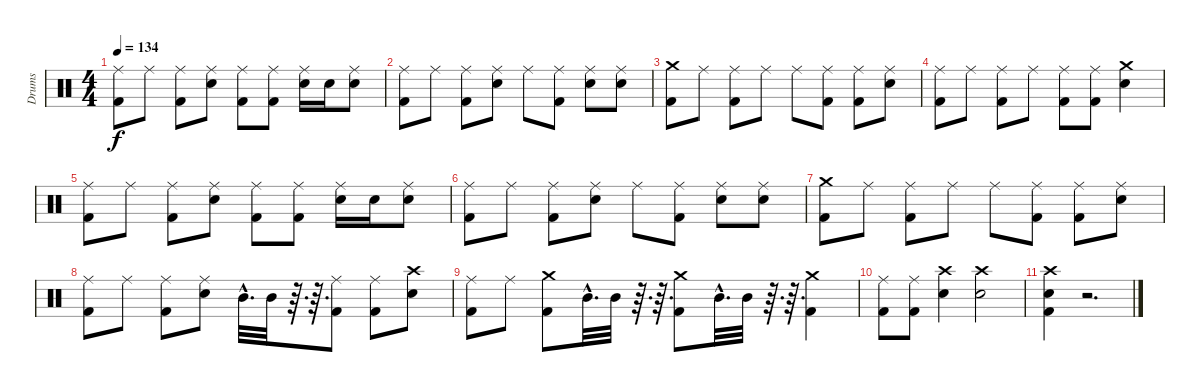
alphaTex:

\track ("Drums" "Drums") {instrument percussion}
\staff {score}
\articulation defaults
\ts (4 4)
\tempo 134
\clef neutral
\ks c
("Ride (middle)" "Kick (hit) 2").8{dy f} "Ride (middle)".8 ("Ride (middle)" "Kick (hit) 2").8 ("Ride (middle)" "Snare (hit) 2").8 ("Ride (middle)" "Kick (hit) 2").8 ("Ride (middle)" "Kick (hit) 2").8 ("Ride (middle)" "Snare (hit) 2").16 "Snare (hit) 2".16 ("Ride (middle)" "Snare (hit) 2").8 |
("Ride (middle)" "Kick (hit) 2").8 "Ride (middle)".8 ("Ride (middle)" "Kick (hit) 2").8 ("Ride (middle)" "Snare (hit) 2").8 "Ride (middle)".8 ("Ride (middle)" "Kick (hit) 2").8 ("Ride (middle)" "Snare (hit) 2").8 ("Ride (middle)" "Snare (hit) 2").8 |
("Crash medium (hit)" "Kick (hit) 2").8 "Ride (middle)".8 ("Ride (middle)" "Kick (hit) 2").8 "Ride (middle)".8 "Ride (middle)".8 ("Ride (middle)" "Kick (hit) 2").8 ("Ride (middle)" "Kick (hit) 2").8 ("Ride (middle)" "Snare (hit) 2").8 |
("Ride (middle)" "Kick (hit) 2").8 "Ride (middle)".8 ("Ride (middle)" "Kick (hit) 2").8 "Ride (middle)".8 ("Ride (middle)" "Kick (hit) 2").8 ("Ride (middle)" "Kick (hit) 2").8 ("Crash medium (hit)" "Snare (hit) 2").4 |
("Ride (middle)" "Kick (hit) 2").8 "Ride (middle)".8 ("Ride (middle)" "Kick (hit) 2").8 ("Ride (middle)" "Snare (hit) 2").8 ("Ride (middle)" "Kick (hit) 2").8 ("Ride (middle)" "Kick (hit) 2").8 ("Ride (middle)" "Snare (hit) 2").16 "Snare (hit) 2".16 ("Ride (middle)" "Snare (hit) 2").8 |
("Ride (middle)" "Kick (hit) 2").8 "Ride (middle)".8 ("Ride (middle)" "Kick (hit) 2").8 ("Ride (middle)" "Snare (hit) 2").8 "Ride (middle)".8 ("Ride (middle)" "Kick (hit) 2").8 ("Ride (middle)" "Snare (hit) 2").8 ("Ride (middle)" "Snare (hit) 2").8 |
("Crash medium (hit)" "Kick (hit) 2").8 "Ride (middle)".8 ("Ride (middle)" "Kick (hit) 2").8 "Ride (middle)".8 "Ride (middle)".8 ("Ride (middle)" "Kick (hit) 2").8 ("Ride (middle)" "Kick (hit) 2").8 ("Ride (middle)" "Snare (hit) 2").8 |
("Ride (middle)" "Kick (hit) 2").8 "Ride (middle)".8 ("Ride (middle)" "Kick (hit) 2").8 ("Ride (middle)" "Snare (hit) 2").8 "Mid Tom (hit)"{hac}.32{d} "Mid Tom (hit)".32 r.64{d} r.64{d} ("Ride (middle)" "Kick (hit) 2").8 ("Ride (middle)" "Kick (hit) 2").8 ("Crash high (hit)" "Snare (hit) 2").8 |
("Ride (middle)" "Kick (hit) 2").8 "Ride (middle)".8 ("Crash medium (hit)" "Kick (hit) 2").8 "Mid Tom (hit)"{hac}.32{d} "Mid Tom (hit)".32 r.64{d} r.64{d} ("Crash medium (hit)" "Kick (hit) 2").8 "Mid Tom (hit)"{hac}.32{d} "Mid Tom (hit)".32 r.64{d} r.64{d} ("Crash medium (hit)" "Kick (hit) 2").4 |
("Ride (middle)" "Kick (hit) 2").8 ("Ride (middle)" "Kick (hit) 2").8 ("Crash high (hit)" "Snare (hit) 2").4 ("Crash high (hit)" "Snare (hit) 2").2 |
("Crash high (hit)" "Kick (hit) 2" "Snare (hit) 2").4 r.2{d}
